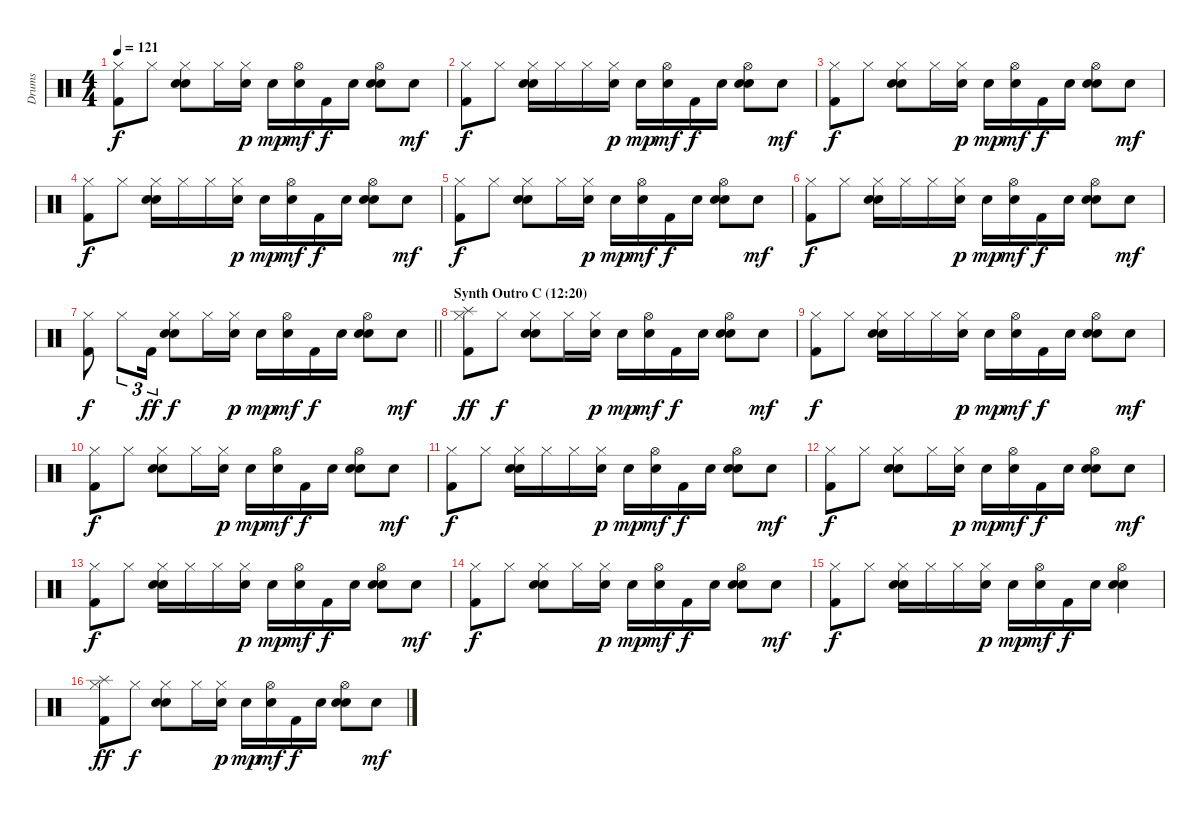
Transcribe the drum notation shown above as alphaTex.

\track ("Drums" "Drums") {instrument percussion}
\staff {score}
\articulation defaults
\ts (4 4)
\tempo 121
\clef neutral
\ks c
("Hi-Hat (closed)" "Kick (hit) 2").8{dy f} "Hi-Hat (closed)".8 ("Hi-Hat (closed)" "Electric Snare (hit)" "Hand Clap (hit)").8 "Hi-Hat (closed)".16 ("Hi-Hat (closed)" "Electric Snare (hit)").16{dy p} "Electric Snare (hit)".16{dy mp} ("Hi-Hat (open)" "Electric Snare (hit)").16{dy mf} "Kick (hit) 2".16{dy f} "Electric Snare (hit)".16 ("Hi-Hat (open)" "Electric Snare (hit)" "Hand Clap (hit)").8 "Electric Snare (hit)".8{dy mf} |
("Hi-Hat (closed)" "Kick (hit) 2").8{dy f} "Hi-Hat (closed)".8 ("Hi-Hat (closed)" "Electric Snare (hit)" "Hand Clap (hit)").16 "Hi-Hat (closed)".16 "Hi-Hat (closed)".16 ("Hi-Hat (closed)" "Electric Snare (hit)").16{dy p} "Electric Snare (hit)".16{dy mp} ("Hi-Hat (open)" "Electric Snare (hit)").16{dy mf} "Kick (hit) 2".16{dy f} "Electric Snare (hit)".16 ("Hi-Hat (open)" "Electric Snare (hit)" "Hand Clap (hit)").8 "Electric Snare (hit)".8{dy mf} |
("Hi-Hat (closed)" "Kick (hit) 2").8{dy f} "Hi-Hat (closed)".8 ("Hi-Hat (closed)" "Electric Snare (hit)" "Hand Clap (hit)").8 "Hi-Hat (closed)".16 ("Hi-Hat (closed)" "Electric Snare (hit)").16{dy p} "Electric Snare (hit)".16{dy mp} ("Hi-Hat (open)" "Electric Snare (hit)").16{dy mf} "Kick (hit) 2".16{dy f} "Electric Snare (hit)".16 ("Hi-Hat (open)" "Electric Snare (hit)" "Hand Clap (hit)").8 "Electric Snare (hit)".8{dy mf} |
("Hi-Hat (closed)" "Kick (hit) 2").8{dy f} "Hi-Hat (closed)".8 ("Hi-Hat (closed)" "Electric Snare (hit)" "Hand Clap (hit)").16 "Hi-Hat (closed)".16 "Hi-Hat (closed)".16 ("Hi-Hat (closed)" "Electric Snare (hit)").16{dy p} "Electric Snare (hit)".16{dy mp} ("Hi-Hat (open)" "Electric Snare (hit)").16{dy mf} "Kick (hit) 2".16{dy f} "Electric Snare (hit)".16 ("Hi-Hat (open)" "Electric Snare (hit)" "Hand Clap (hit)").8 "Electric Snare (hit)".8{dy mf} |
("Hi-Hat (closed)" "Kick (hit) 2").8{dy f} "Hi-Hat (closed)".8 ("Hi-Hat (closed)" "Electric Snare (hit)" "Hand Clap (hit)").8 "Hi-Hat (closed)".16 ("Hi-Hat (closed)" "Electric Snare (hit)").16{dy p} "Electric Snare (hit)".16{dy mp} ("Hi-Hat (open)" "Electric Snare (hit)").16{dy mf} "Kick (hit) 2".16{dy f} "Electric Snare (hit)".16 ("Hi-Hat (open)" "Electric Snare (hit)" "Hand Clap (hit)").8 "Electric Snare (hit)".8{dy mf} |
("Hi-Hat (closed)" "Kick (hit) 2").8{dy f} "Hi-Hat (closed)".8 ("Hi-Hat (closed)" "Electric Snare (hit)" "Hand Clap (hit)").16 "Hi-Hat (closed)".16 "Hi-Hat (closed)".16 ("Hi-Hat (closed)" "Electric Snare (hit)").16{dy p} "Electric Snare (hit)".16{dy mp} ("Hi-Hat (open)" "Electric Snare (hit)").16{dy mf} "Kick (hit) 2".16{dy f} "Electric Snare (hit)".16 ("Hi-Hat (open)" "Electric Snare (hit)" "Hand Clap (hit)").8 "Electric Snare (hit)".8{dy mf} |
\barLineRight lightlight
("Hi-Hat (closed)" "Kick (hit) 2").8{dy f} "Hi-Hat (closed)".8{tu (3 2)} "Kick (hit) 2".16{tu (3 2) dy ff} ("Hi-Hat (closed)" "Electric Snare (hit)" "Hand Clap (hit)").8{dy f} "Hi-Hat (closed)".16 ("Hi-Hat (closed)" "Electric Snare (hit)").16{dy p} "Electric Snare (hit)".16{dy mp} ("Hi-Hat (open)" "Electric Snare (hit)").16{dy mf} "Kick (hit) 2".16{dy f} "Electric Snare (hit)".16 ("Hi-Hat (open)" "Electric Snare (hit)" "Hand Clap (hit)").8 "Electric Snare (hit)".8{dy mf} |
\section ("" "Synth Outro C (12:20)")
("Splash (hit)" "Hi-Hat (closed)" "Kick (hit) 2").8{dy ff volume 16} "Hi-Hat (closed)".8{dy f} ("Hi-Hat (closed)" "Electric Snare (hit)" "Hand Clap (hit)").8 "Hi-Hat (closed)".16 ("Hi-Hat (closed)" "Electric Snare (hit)").16{dy p} "Electric Snare (hit)".16{dy mp} ("Hi-Hat (open)" "Electric Snare (hit)").16{dy mf} "Kick (hit) 2".16{dy f} "Electric Snare (hit)".16 ("Hi-Hat (open)" "Electric Snare (hit)" "Hand Clap (hit)").8 "Electric Snare (hit)".8{dy mf} |
("Hi-Hat (closed)" "Kick (hit) 2").8{dy f} "Hi-Hat (closed)".8 ("Hi-Hat (closed)" "Electric Snare (hit)" "Hand Clap (hit)").16 "Hi-Hat (closed)".16 "Hi-Hat (closed)".16 ("Hi-Hat (closed)" "Electric Snare (hit)").16{dy p} "Electric Snare (hit)".16{dy mp} ("Hi-Hat (open)" "Electric Snare (hit)").16{dy mf} "Kick (hit) 2".16{dy f} "Electric Snare (hit)".16 ("Hi-Hat (open)" "Electric Snare (hit)" "Hand Clap (hit)").8 "Electric Snare (hit)".8{dy mf} |
("Hi-Hat (closed)" "Kick (hit) 2").8{dy f} "Hi-Hat (closed)".8 ("Hi-Hat (closed)" "Electric Snare (hit)" "Hand Clap (hit)").8 "Hi-Hat (closed)".16 ("Hi-Hat (closed)" "Electric Snare (hit)").16{dy p} "Electric Snare (hit)".16{dy mp} ("Hi-Hat (open)" "Electric Snare (hit)").16{dy mf} "Kick (hit) 2".16{dy f} "Electric Snare (hit)".16 ("Hi-Hat (open)" "Electric Snare (hit)" "Hand Clap (hit)").8 "Electric Snare (hit)".8{dy mf} |
("Hi-Hat (closed)" "Kick (hit) 2").8{dy f} "Hi-Hat (closed)".8 ("Hi-Hat (closed)" "Electric Snare (hit)" "Hand Clap (hit)").16 "Hi-Hat (closed)".16 "Hi-Hat (closed)".16 ("Hi-Hat (closed)" "Electric Snare (hit)").16{dy p} "Electric Snare (hit)".16{dy mp} ("Hi-Hat (open)" "Electric Snare (hit)").16{dy mf} "Kick (hit) 2".16{dy f} "Electric Snare (hit)".16 ("Hi-Hat (open)" "Electric Snare (hit)" "Hand Clap (hit)").8 "Electric Snare (hit)".8{dy mf} |
("Hi-Hat (closed)" "Kick (hit) 2").8{dy f} "Hi-Hat (closed)".8 ("Hi-Hat (closed)" "Electric Snare (hit)" "Hand Clap (hit)").8 "Hi-Hat (closed)".16 ("Hi-Hat (closed)" "Electric Snare (hit)").16{dy p} "Electric Snare (hit)".16{dy mp} ("Hi-Hat (open)" "Electric Snare (hit)").16{dy mf} "Kick (hit) 2".16{dy f} "Electric Snare (hit)".16 ("Hi-Hat (open)" "Electric Snare (hit)" "Hand Clap (hit)").8 "Electric Snare (hit)".8{dy mf} |
("Hi-Hat (closed)" "Kick (hit) 2").8{dy f} "Hi-Hat (closed)".8 ("Hi-Hat (closed)" "Electric Snare (hit)" "Hand Clap (hit)").16 "Hi-Hat (closed)".16 "Hi-Hat (closed)".16 ("Hi-Hat (closed)" "Electric Snare (hit)").16{dy p} "Electric Snare (hit)".16{dy mp} ("Hi-Hat (open)" "Electric Snare (hit)").16{dy mf} "Kick (hit) 2".16{dy f} "Electric Snare (hit)".16 ("Hi-Hat (open)" "Electric Snare (hit)" "Hand Clap (hit)").8 "Electric Snare (hit)".8{dy mf} |
("Hi-Hat (closed)" "Kick (hit) 2").8{dy f} "Hi-Hat (closed)".8 ("Hi-Hat (closed)" "Electric Snare (hit)" "Hand Clap (hit)").8 "Hi-Hat (closed)".16 ("Hi-Hat (closed)" "Electric Snare (hit)").16{dy p} "Electric Snare (hit)".16{dy mp} ("Hi-Hat (open)" "Electric Snare (hit)").16{dy mf} "Kick (hit) 2".16{dy f} "Electric Snare (hit)".16 ("Hi-Hat (open)" "Electric Snare (hit)" "Hand Clap (hit)").8 "Electric Snare (hit)".8{dy mf} |
("Hi-Hat (closed)" "Kick (hit) 2").8{dy f} "Hi-Hat (closed)".8 ("Hi-Hat (closed)" "Electric Snare (hit)" "Hand Clap (hit)").16 "Hi-Hat (closed)".16 "Hi-Hat (closed)".16 ("Hi-Hat (closed)" "Electric Snare (hit)").16{dy p} "Electric Snare (hit)".16{dy mp} ("Hi-Hat (open)" "Electric Snare (hit)").16{dy mf} "Kick (hit) 2".16{dy f} "Electric Snare (hit)".16 ("Hi-Hat (open)" "Electric Snare (hit)" "Hand Clap (hit)").4 |
("Splash (hit)" "Hi-Hat (closed)" "Kick (hit) 2").8{dy ff} "Hi-Hat (closed)".8{dy f} ("Hi-Hat (closed)" "Electric Snare (hit)" "Hand Clap (hit)").8 "Hi-Hat (closed)".16 ("Hi-Hat (closed)" "Electric Snare (hit)").16{dy p} "Electric Snare (hit)".16{dy mp} ("Hi-Hat (open)" "Electric Snare (hit)").16{dy mf} "Kick (hit) 2".16{dy f} "Electric Snare (hit)".16 ("Hi-Hat (open)" "Electric Snare (hit)" "Hand Clap (hit)").8 "Electric Snare (hit)".8{dy mf}
